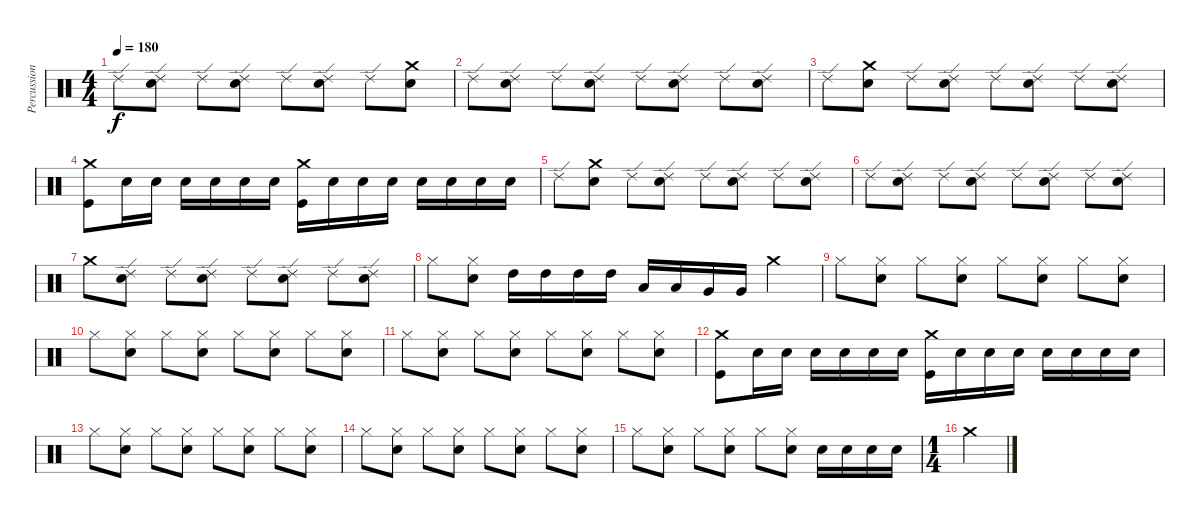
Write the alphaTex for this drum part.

\track ("Percussion" "Percussion") {instrument percussion}
\staff {score}
\articulation defaults
\ts (4 4)
\tempo 180
\clef neutral
\ks c "Ride (edge) 2".8{dy f}
("Snare (hit) 2" "Ride (edge) 2").8 "Ride (edge) 2".8 ("Snare (hit) 2" "Ride (edge) 2").8 "Ride (edge) 2".8 ("Snare (hit) 2" "Ride (edge) 2").8 "Ride (edge) 2".8 ("Snare (hit) 2" "Crash medium (hit)").8 |
"Ride (edge) 2".8 ("Snare (hit) 2" "Ride (edge) 2").8 "Ride (edge) 2".8 ("Snare (hit) 2" "Ride (edge) 2").8 "Ride (edge) 2".8 ("Snare (hit) 2" "Ride (edge) 2").8 "Ride (edge) 2".8 ("Snare (hit) 2" "Ride (edge) 2").8 |
"Ride (edge) 2".8 ("Snare (hit) 2" "Crash medium (hit)").8 "Ride (edge) 2".8 ("Snare (hit) 2" "Ride (edge) 2").8 "Ride (edge) 2".8 ("Snare (hit) 2" "Ride (edge) 2").8 "Ride (edge) 2".8 ("Snare (hit) 2" "Ride (edge) 2").8 |
("Crash medium (hit)" "Kick (hit)").8 "Electric Snare (hit)".16 "Electric Snare (hit)".16 "Electric Snare (hit)".16 "Electric Snare (hit)".16 "Electric Snare (hit)".16 "Electric Snare (hit)".16 ("Crash medium (hit)" "Kick (hit)").16 "Electric Snare (hit)".16 "Electric Snare (hit)".16 "Electric Snare (hit)".16 "Electric Snare (hit)".16 "Electric Snare (hit)".16 "Electric Snare (hit)".16 "Electric Snare (hit)".16 |
"Ride (edge) 2".8 ("Snare (hit) 2" "Crash medium (hit)").8 "Ride (edge) 2".8 ("Snare (hit) 2" "Ride (edge) 2").8 "Ride (edge) 2".8 ("Snare (hit) 2" "Ride (edge) 2").8 "Ride (edge) 2".8 ("Snare (hit) 2" "Ride (edge) 2").8 |
"Ride (edge) 2".8 ("Snare (hit) 2" "Ride (edge) 2").8 "Ride (edge) 2".8 ("Snare (hit) 2" "Ride (edge) 2").8 "Ride (edge) 2".8 ("Snare (hit) 2" "Ride (edge) 2").8 "Ride (edge) 2".8 ("Snare (hit) 2" "Ride (edge) 2").8 |
"Crash medium (hit)".8 ("Snare (hit) 2" "Ride (edge) 2").8 "Ride (edge) 2".8 ("Snare (hit) 2" "Ride (edge) 2").8 "Ride (edge) 2".8 ("Snare (hit) 2" "Ride (edge) 2").8 "Ride (edge) 2".8 ("Snare (hit) 2" "Ride (edge) 2").8 |
"Hi-Hat (closed)".8 ("Snare (hit) 2" "Hi-Hat (closed)").8 "High Tom (hit)".16 "High Tom (hit)".16 "High Tom (hit)".16 "High Tom (hit)".16 "Low Tom (hit)".16 "Low Tom (hit)".16 "Very Low Tom (hit)".16 "Very Low Tom (hit)".16 "Crash medium (hit)".4 |
"Hi-Hat (closed)".8 ("Snare (hit) 2" "Hi-Hat (closed)").8 "Hi-Hat (closed)".8 ("Snare (hit) 2" "Hi-Hat (closed)").8 "Hi-Hat (closed)".8 ("Snare (hit) 2" "Hi-Hat (closed)").8 "Hi-Hat (closed)".8 ("Snare (hit) 2" "Hi-Hat (closed)").8 |
"Hi-Hat (closed)".8 ("Snare (hit) 2" "Hi-Hat (closed)").8 "Hi-Hat (closed)".8 ("Snare (hit) 2" "Hi-Hat (closed)").8 "Hi-Hat (closed)".8 ("Snare (hit) 2" "Hi-Hat (closed)").8 "Hi-Hat (closed)".8 ("Snare (hit) 2" "Hi-Hat (closed)").8 |
"Hi-Hat (closed)".8 ("Snare (hit) 2" "Hi-Hat (closed)").8 "Hi-Hat (closed)".8 ("Snare (hit) 2" "Hi-Hat (closed)").8 "Hi-Hat (closed)".8 ("Snare (hit) 2" "Hi-Hat (closed)").8 "Hi-Hat (closed)".8 ("Snare (hit) 2" "Hi-Hat (closed)").8 |
("Crash medium (hit)" "Kick (hit)").8 "Electric Snare (hit)".16 "Electric Snare (hit)".16 "Electric Snare (hit)".16 "Electric Snare (hit)".16 "Electric Snare (hit)".16 "Electric Snare (hit)".16 ("Crash medium (hit)" "Kick (hit)").16 "Electric Snare (hit)".16 "Electric Snare (hit)".16 "Electric Snare (hit)".16 "Electric Snare (hit)".16 "Electric Snare (hit)".16 "Electric Snare (hit)".16 "Electric Snare (hit)".16 |
"Hi-Hat (closed)".8 ("Snare (hit) 2" "Hi-Hat (closed)").8 "Hi-Hat (closed)".8 ("Snare (hit) 2" "Hi-Hat (closed)").8 "Hi-Hat (closed)".8 ("Snare (hit) 2" "Hi-Hat (closed)").8 "Hi-Hat (closed)".8 ("Snare (hit) 2" "Hi-Hat (closed)").8 |
"Hi-Hat (closed)".8 ("Snare (hit) 2" "Hi-Hat (closed)").8 "Hi-Hat (closed)".8 ("Snare (hit) 2" "Hi-Hat (closed)").8 "Hi-Hat (closed)".8 ("Snare (hit) 2" "Hi-Hat (closed)").8 "Hi-Hat (closed)".8 ("Snare (hit) 2" "Hi-Hat (closed)").8 |
"Hi-Hat (closed)".8 ("Snare (hit) 2" "Hi-Hat (closed)").8 "Hi-Hat (closed)".8 ("Snare (hit) 2" "Hi-Hat (closed)").8 "Hi-Hat (closed)".8 ("Snare (hit) 2" "Hi-Hat (closed)").8 "Electric Snare (hit)".16 "Electric Snare (hit)".16 "Electric Snare (hit)".16 "Electric Snare (hit)".16 |
\ts (1 4)
"Crash medium (hit)".4
